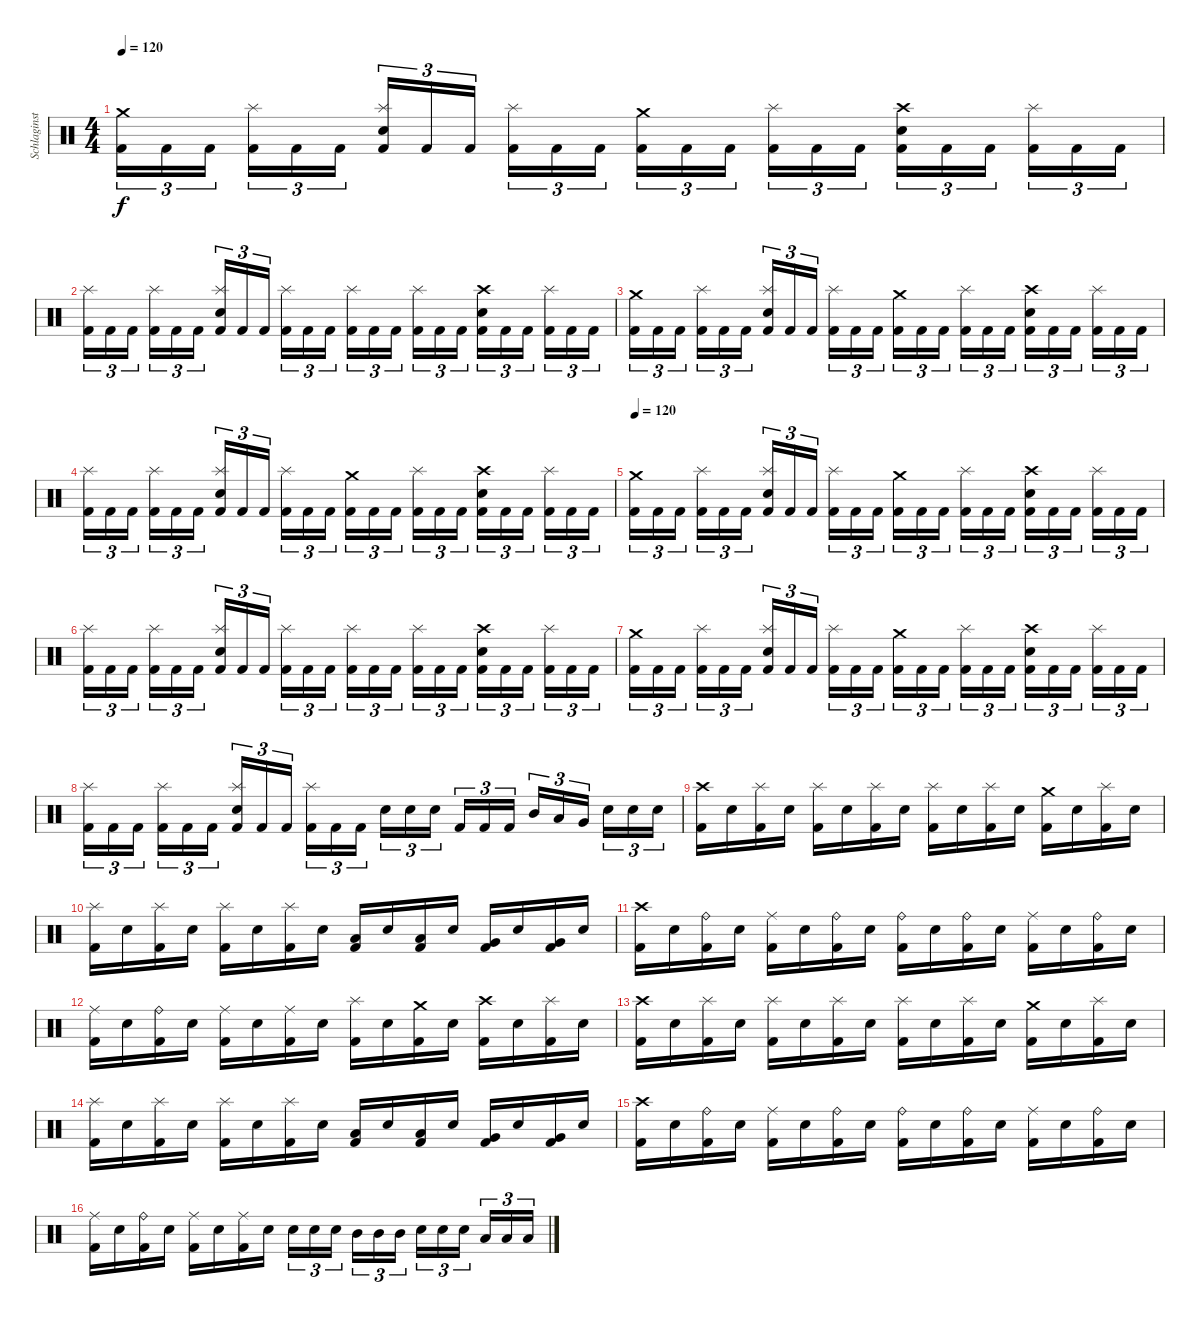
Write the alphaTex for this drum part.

\track ("Schlaginstrumente - Auswahl" "Schlaginst") {instrument percussion}
\staff {score}
\articulation defaults
\ts (4 4)
\tempo 120
\clef neutral
\ks c
("Crash medium (hit)" "Kick (hit) 2").16{tu (3 2) dy f} "Kick (hit) 2".16{tu (3 2)} "Kick (hit) 2".16{tu (3 2) beam splitsecondary} ("Splash (hit)" "Kick (hit) 2").16{tu (3 2)} "Kick (hit) 2".16{tu (3 2)} "Kick (hit) 2".16{tu (3 2)} ("Splash (hit)" "Electric Snare (hit)" "Kick (hit) 2").16{tu (3 2)} "Kick (hit) 2".16{tu (3 2)} "Kick (hit) 2".16{tu (3 2) beam splitsecondary} ("Splash (hit)" "Kick (hit) 2").16{tu (3 2)} "Kick (hit) 2".16{tu (3 2)} "Kick (hit) 2".16{tu (3 2)} ("Crash medium (hit)" "Kick (hit) 2").16{tu (3 2)} "Kick (hit) 2".16{tu (3 2)} "Kick (hit) 2".16{tu (3 2) beam splitsecondary} ("Splash (hit)" "Kick (hit) 2").16{tu (3 2)} "Kick (hit) 2".16{tu (3 2)} "Kick (hit) 2".16{tu (3 2)} ("Crash high (hit)" "Electric Snare (hit)" "Kick (hit) 2").16{tu (3 2)} "Kick (hit) 2".16{tu (3 2)} "Kick (hit) 2".16{tu (3 2) beam splitsecondary} ("Splash (hit)" "Kick (hit) 2").16{tu (3 2)} "Kick (hit) 2".16{tu (3 2)} "Kick (hit) 2".16{tu (3 2)} |
("Splash (hit)" "Kick (hit) 2").16{tu (3 2)} "Kick (hit) 2".16{tu (3 2)} "Kick (hit) 2".16{tu (3 2) beam splitsecondary} ("Splash (hit)" "Kick (hit) 2").16{tu (3 2)} "Kick (hit) 2".16{tu (3 2)} "Kick (hit) 2".16{tu (3 2)} ("Splash (hit)" "Electric Snare (hit)" "Kick (hit) 2").16{tu (3 2)} "Kick (hit) 2".16{tu (3 2)} "Kick (hit) 2".16{tu (3 2) beam splitsecondary} ("Splash (hit)" "Kick (hit) 2").16{tu (3 2)} "Kick (hit) 2".16{tu (3 2)} "Kick (hit) 2".16{tu (3 2)} ("Splash (hit)" "Kick (hit) 2").16{tu (3 2)} "Kick (hit) 2".16{tu (3 2)} "Kick (hit) 2".16{tu (3 2) beam splitsecondary} ("Splash (hit)" "Kick (hit) 2").16{tu (3 2)} "Kick (hit) 2".16{tu (3 2)} "Kick (hit) 2".16{tu (3 2)} ("Crash high (hit)" "Electric Snare (hit)" "Kick (hit) 2").16{tu (3 2)} "Kick (hit) 2".16{tu (3 2)} "Kick (hit) 2".16{tu (3 2) beam splitsecondary} ("Splash (hit)" "Kick (hit) 2").16{tu (3 2)} "Kick (hit) 2".16{tu (3 2)} "Kick (hit) 2".16{tu (3 2)} |
("Crash medium (hit)" "Kick (hit) 2").16{tu (3 2)} "Kick (hit) 2".16{tu (3 2)} "Kick (hit) 2".16{tu (3 2) beam splitsecondary} ("Splash (hit)" "Kick (hit) 2").16{tu (3 2)} "Kick (hit) 2".16{tu (3 2)} "Kick (hit) 2".16{tu (3 2)} ("Splash (hit)" "Electric Snare (hit)" "Kick (hit) 2").16{tu (3 2)} "Kick (hit) 2".16{tu (3 2)} "Kick (hit) 2".16{tu (3 2) beam splitsecondary} ("Splash (hit)" "Kick (hit) 2").16{tu (3 2)} "Kick (hit) 2".16{tu (3 2)} "Kick (hit) 2".16{tu (3 2)} ("Crash medium (hit)" "Kick (hit) 2").16{tu (3 2)} "Kick (hit) 2".16{tu (3 2)} "Kick (hit) 2".16{tu (3 2) beam splitsecondary} ("Splash (hit)" "Kick (hit) 2").16{tu (3 2)} "Kick (hit) 2".16{tu (3 2)} "Kick (hit) 2".16{tu (3 2)} ("Crash high (hit)" "Electric Snare (hit)" "Kick (hit) 2").16{tu (3 2)} "Kick (hit) 2".16{tu (3 2)} "Kick (hit) 2".16{tu (3 2) beam splitsecondary} ("Splash (hit)" "Kick (hit) 2").16{tu (3 2)} "Kick (hit) 2".16{tu (3 2)} "Kick (hit) 2".16{tu (3 2)} |
("Splash (hit)" "Kick (hit) 2").16{tu (3 2)} "Kick (hit) 2".16{tu (3 2)} "Kick (hit) 2".16{tu (3 2) beam splitsecondary} ("Splash (hit)" "Kick (hit) 2").16{tu (3 2)} "Kick (hit) 2".16{tu (3 2)} "Kick (hit) 2".16{tu (3 2)} ("Splash (hit)" "Electric Snare (hit)" "Kick (hit) 2").16{tu (3 2)} "Kick (hit) 2".16{tu (3 2)} "Kick (hit) 2".16{tu (3 2) beam splitsecondary} ("Splash (hit)" "Kick (hit) 2").16{tu (3 2)} "Kick (hit) 2".16{tu (3 2)} "Kick (hit) 2".16{tu (3 2)} ("Crash medium (hit)" "Kick (hit) 2").16{tu (3 2)} "Kick (hit) 2".16{tu (3 2)} "Kick (hit) 2".16{tu (3 2) beam splitsecondary} ("Splash (hit)" "Kick (hit) 2").16{tu (3 2)} "Kick (hit) 2".16{tu (3 2)} "Kick (hit) 2".16{tu (3 2)} ("Crash high (hit)" "Electric Snare (hit)" "Kick (hit) 2").16{tu (3 2)} "Kick (hit) 2".16{tu (3 2)} "Kick (hit) 2".16{tu (3 2) beam splitsecondary} ("Splash (hit)" "Kick (hit) 2").16{tu (3 2)} "Kick (hit) 2".16{tu (3 2)} "Kick (hit) 2".16{tu (3 2)} |
\tempo 120
("Crash medium (hit)" "Kick (hit) 2").16{tu (3 2)} "Kick (hit) 2".16{tu (3 2)} "Kick (hit) 2".16{tu (3 2) beam splitsecondary} ("Splash (hit)" "Kick (hit) 2").16{tu (3 2)} "Kick (hit) 2".16{tu (3 2)} "Kick (hit) 2".16{tu (3 2)} ("Splash (hit)" "Electric Snare (hit)" "Kick (hit) 2").16{tu (3 2)} "Kick (hit) 2".16{tu (3 2)} "Kick (hit) 2".16{tu (3 2) beam splitsecondary} ("Splash (hit)" "Kick (hit) 2").16{tu (3 2)} "Kick (hit) 2".16{tu (3 2)} "Kick (hit) 2".16{tu (3 2)} ("Crash medium (hit)" "Kick (hit) 2").16{tu (3 2)} "Kick (hit) 2".16{tu (3 2)} "Kick (hit) 2".16{tu (3 2) beam splitsecondary} ("Splash (hit)" "Kick (hit) 2").16{tu (3 2)} "Kick (hit) 2".16{tu (3 2)} "Kick (hit) 2".16{tu (3 2)} ("Crash high (hit)" "Electric Snare (hit)" "Kick (hit) 2").16{tu (3 2)} "Kick (hit) 2".16{tu (3 2)} "Kick (hit) 2".16{tu (3 2) beam splitsecondary} ("Splash (hit)" "Kick (hit) 2").16{tu (3 2)} "Kick (hit) 2".16{tu (3 2)} "Kick (hit) 2".16{tu (3 2)} |
("Splash (hit)" "Kick (hit) 2").16{tu (3 2)} "Kick (hit) 2".16{tu (3 2)} "Kick (hit) 2".16{tu (3 2) beam splitsecondary} ("Splash (hit)" "Kick (hit) 2").16{tu (3 2)} "Kick (hit) 2".16{tu (3 2)} "Kick (hit) 2".16{tu (3 2)} ("Splash (hit)" "Electric Snare (hit)" "Kick (hit) 2").16{tu (3 2)} "Kick (hit) 2".16{tu (3 2)} "Kick (hit) 2".16{tu (3 2) beam splitsecondary} ("Splash (hit)" "Kick (hit) 2").16{tu (3 2)} "Kick (hit) 2".16{tu (3 2)} "Kick (hit) 2".16{tu (3 2)} ("Splash (hit)" "Kick (hit) 2").16{tu (3 2)} "Kick (hit) 2".16{tu (3 2)} "Kick (hit) 2".16{tu (3 2) beam splitsecondary} ("Splash (hit)" "Kick (hit) 2").16{tu (3 2)} "Kick (hit) 2".16{tu (3 2)} "Kick (hit) 2".16{tu (3 2)} ("Crash high (hit)" "Electric Snare (hit)" "Kick (hit) 2").16{tu (3 2)} "Kick (hit) 2".16{tu (3 2)} "Kick (hit) 2".16{tu (3 2) beam splitsecondary} ("Splash (hit)" "Kick (hit) 2").16{tu (3 2)} "Kick (hit) 2".16{tu (3 2)} "Kick (hit) 2".16{tu (3 2)} |
("Crash medium (hit)" "Kick (hit) 2").16{tu (3 2)} "Kick (hit) 2".16{tu (3 2)} "Kick (hit) 2".16{tu (3 2) beam splitsecondary} ("Splash (hit)" "Kick (hit) 2").16{tu (3 2)} "Kick (hit) 2".16{tu (3 2)} "Kick (hit) 2".16{tu (3 2)} ("Splash (hit)" "Electric Snare (hit)" "Kick (hit) 2").16{tu (3 2)} "Kick (hit) 2".16{tu (3 2)} "Kick (hit) 2".16{tu (3 2) beam splitsecondary} ("Splash (hit)" "Kick (hit) 2").16{tu (3 2)} "Kick (hit) 2".16{tu (3 2)} "Kick (hit) 2".16{tu (3 2)} ("Crash medium (hit)" "Kick (hit) 2").16{tu (3 2)} "Kick (hit) 2".16{tu (3 2)} "Kick (hit) 2".16{tu (3 2) beam splitsecondary} ("Splash (hit)" "Kick (hit) 2").16{tu (3 2)} "Kick (hit) 2".16{tu (3 2)} "Kick (hit) 2".16{tu (3 2)} ("Crash high (hit)" "Electric Snare (hit)" "Kick (hit) 2").16{tu (3 2)} "Kick (hit) 2".16{tu (3 2)} "Kick (hit) 2".16{tu (3 2) beam splitsecondary} ("Splash (hit)" "Kick (hit) 2").16{tu (3 2)} "Kick (hit) 2".16{tu (3 2)} "Kick (hit) 2".16{tu (3 2)} |
("Splash (hit)" "Kick (hit) 2").16{tu (3 2)} "Kick (hit) 2".16{tu (3 2)} "Kick (hit) 2".16{tu (3 2) beam splitsecondary} ("Splash (hit)" "Kick (hit) 2").16{tu (3 2)} "Kick (hit) 2".16{tu (3 2)} "Kick (hit) 2".16{tu (3 2)} ("Splash (hit)" "Electric Snare (hit)" "Kick (hit) 2").16{tu (3 2)} "Kick (hit) 2".16{tu (3 2)} "Kick (hit) 2".16{tu (3 2) beam splitsecondary} ("Splash (hit)" "Kick (hit) 2").16{tu (3 2)} "Kick (hit) 2".16{tu (3 2)} "Kick (hit) 2".16{tu (3 2)} "Electric Snare (hit)".16{tu (3 2)} "Electric Snare (hit)".16{tu (3 2)} "Electric Snare (hit)".16{tu (3 2) beam splitsecondary} "Kick (hit) 2".16{tu (3 2)} "Kick (hit) 2".16{tu (3 2)} "Kick (hit) 2".16{tu (3 2)} "Mid Tom (hit)".16{tu (3 2)} "Low Tom (hit)".16{tu (3 2)} "Very Low Tom (hit)".16{tu (3 2) beam splitsecondary} "Electric Snare (hit)".16{tu (3 2)} "Electric Snare (hit)".16{tu (3 2)} "Electric Snare (hit)".16{tu (3 2)} |
("Crash high (hit)" "Kick (hit) 2").16 "Electric Snare (hit)".16 ("Splash (hit)" "Kick (hit) 2").16 "Electric Snare (hit)".16 ("Splash (hit)" "Kick (hit) 2").16 "Electric Snare (hit)".16 ("Splash (hit)" "Kick (hit) 2").16 "Electric Snare (hit)".16 ("Splash (hit)" "Kick (hit) 2").16 "Electric Snare (hit)".16 ("Splash (hit)" "Kick (hit) 2").16 "Electric Snare (hit)".16 ("Crash medium (hit)" "Kick (hit) 2").16 "Electric Snare (hit)".16 ("Splash (hit)" "Kick (hit) 2").16 "Electric Snare (hit)".16 |
("Splash (hit)" "Kick (hit) 2").16 "Electric Snare (hit)".16 ("Splash (hit)" "Kick (hit) 2").16 "Electric Snare (hit)".16 ("Splash (hit)" "Kick (hit) 2").16 "Electric Snare (hit)".16 ("Splash (hit)" "Kick (hit) 2").16 "Electric Snare (hit)".16 ("Low Tom (hit)" "Kick (hit) 2").16 "Electric Snare (hit)".16 ("Low Tom (hit)" "Kick (hit) 2").16 "Electric Snare (hit)".16 ("Very Low Tom (hit)" "Kick (hit) 2").16 "Electric Snare (hit)".16 ("Very Low Tom (hit)" "Kick (hit) 2").16 "Electric Snare (hit)".16 |
("Crash high (hit)" "Kick (hit) 2").16 "Electric Snare (hit)".16 ("Ride (bell)" "Kick (hit) 2").16 "Electric Snare (hit)".16 ("Ride (middle)" "Kick (hit) 2").16 "Electric Snare (hit)".16 ("Ride (bell)" "Kick (hit) 2").16 "Electric Snare (hit)".16 ("Ride (bell)" "Kick (hit) 2").16 "Electric Snare (hit)".16 ("Ride (bell)" "Kick (hit) 2").16 "Electric Snare (hit)".16 ("Ride (middle)" "Kick (hit) 2").16 "Electric Snare (hit)".16 ("Ride (bell)" "Kick (hit) 2").16 "Electric Snare (hit)".16 |
("Ride (middle)" "Kick (hit) 2").16 "Electric Snare (hit)".16 ("Ride (bell)" "Kick (hit) 2").16 "Electric Snare (hit)".16 ("Ride (middle)" "Kick (hit) 2").16 "Electric Snare (hit)".16 ("Ride (middle)" "Kick (hit) 2").16 "Electric Snare (hit)".16 ("Splash (hit)" "Kick (hit) 2").16 "Electric Snare (hit)".16 ("Crash medium (hit)" "Kick (hit) 2").16 "Electric Snare (hit)".16 ("Crash high (hit)" "Kick (hit) 2").16 "Electric Snare (hit)".16 ("Splash (hit)" "Kick (hit) 2").16 "Electric Snare (hit)".16 |
("Crash high (hit)" "Kick (hit) 2").16 "Electric Snare (hit)".16 ("Splash (hit)" "Kick (hit) 2").16 "Electric Snare (hit)".16 ("Splash (hit)" "Kick (hit) 2").16 "Electric Snare (hit)".16 ("Splash (hit)" "Kick (hit) 2").16 "Electric Snare (hit)".16 ("Splash (hit)" "Kick (hit) 2").16 "Electric Snare (hit)".16 ("Splash (hit)" "Kick (hit) 2").16 "Electric Snare (hit)".16 ("Crash medium (hit)" "Kick (hit) 2").16 "Electric Snare (hit)".16 ("Splash (hit)" "Kick (hit) 2").16 "Electric Snare (hit)".16 |
("Splash (hit)" "Kick (hit) 2").16 "Electric Snare (hit)".16 ("Splash (hit)" "Kick (hit) 2").16 "Electric Snare (hit)".16 ("Splash (hit)" "Kick (hit) 2").16 "Electric Snare (hit)".16 ("Splash (hit)" "Kick (hit) 2").16 "Electric Snare (hit)".16 ("Low Tom (hit)" "Kick (hit) 2").16 "Electric Snare (hit)".16 ("Low Tom (hit)" "Kick (hit) 2").16 "Electric Snare (hit)".16 ("Very Low Tom (hit)" "Kick (hit) 2").16 "Electric Snare (hit)".16 ("Very Low Tom (hit)" "Kick (hit) 2").16 "Electric Snare (hit)".16 |
("Crash high (hit)" "Kick (hit) 2").16 "Electric Snare (hit)".16 ("Ride (bell)" "Kick (hit) 2").16 "Electric Snare (hit)".16 ("Ride (middle)" "Kick (hit) 2").16 "Electric Snare (hit)".16 ("Ride (bell)" "Kick (hit) 2").16 "Electric Snare (hit)".16 ("Ride (bell)" "Kick (hit) 2").16 "Electric Snare (hit)".16 ("Ride (bell)" "Kick (hit) 2").16 "Electric Snare (hit)".16 ("Ride (middle)" "Kick (hit) 2").16 "Electric Snare (hit)".16 ("Ride (bell)" "Kick (hit) 2").16 "Electric Snare (hit)".16 |
("Ride (middle)" "Kick (hit) 2").16 "Electric Snare (hit)".16 ("Ride (bell)" "Kick (hit) 2").16 "Electric Snare (hit)".16 ("Ride (middle)" "Kick (hit) 2").16 "Electric Snare (hit)".16 ("Ride (middle)" "Kick (hit) 2").16 "Electric Snare (hit)".16 "Electric Snare (hit)".16{tu (3 2)} "Electric Snare (hit)".16{tu (3 2)} "Electric Snare (hit)".16{tu (3 2) beam splitsecondary} "Mid Tom (hit)".16{tu (3 2)} "Mid Tom (hit)".16{tu (3 2)} "Mid Tom (hit)".16{tu (3 2)} "Electric Snare (hit)".16{tu (3 2)} "Electric Snare (hit)".16{tu (3 2)} "Electric Snare (hit)".16{tu (3 2) beam splitsecondary} "Low Tom (hit)".16{tu (3 2)} "Low Tom (hit)".16{tu (3 2)} "Low Tom (hit)".16{tu (3 2)}
